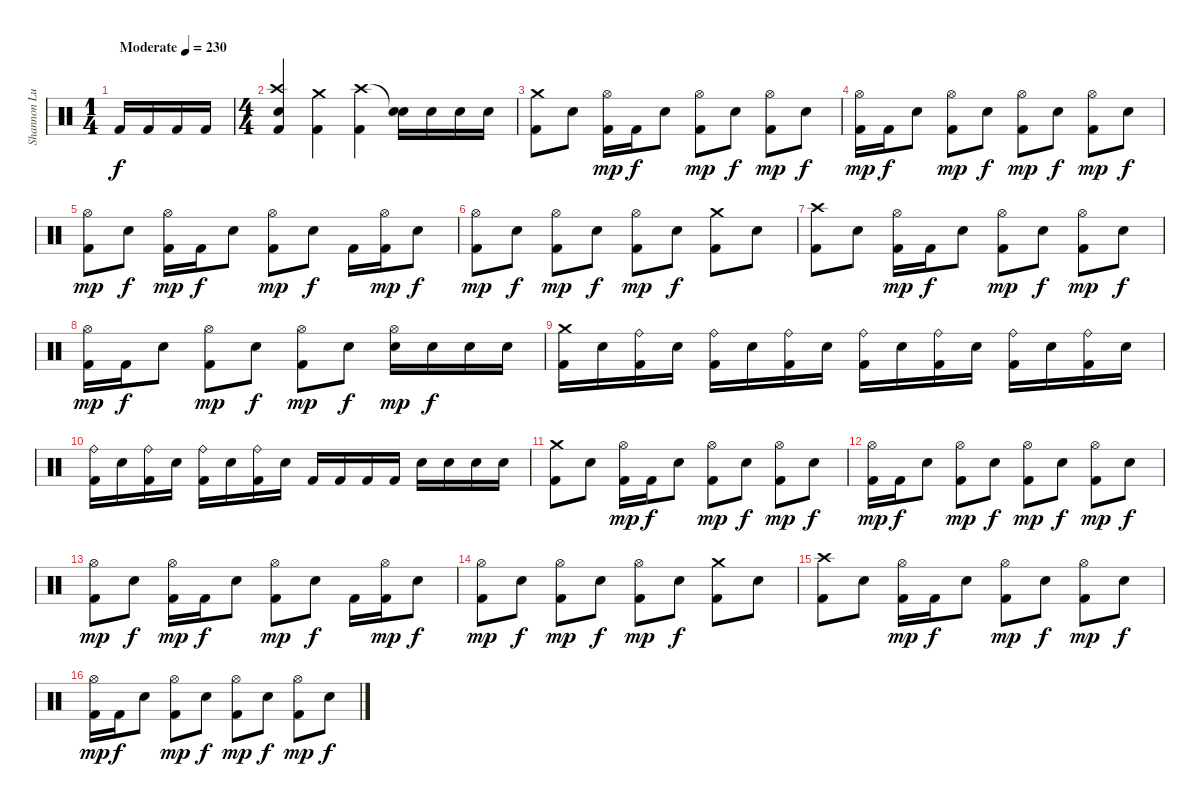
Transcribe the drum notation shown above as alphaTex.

\track ("Shannon Lucas" "Shannon Lu") {instrument percussion}
\staff {score}
\articulation defaults
\ts (1 4)
\tempo (230 "Moderate")
\clef neutral
\ks c "Kick (hit) 2".16{dy f} "Kick (hit) 2".16 "Kick (hit) 2".16 "Kick (hit) 2".16
|
\ts (4 4)
("Crash high (hit)" "Electric Snare (hit)" "Kick (hit) 2").4 ("Crash medium (hit)" "Kick (hit) 2").4 ("Crash high (hit)" "Kick (hit) 2").4 ("Snare (hit)"{t} "Electric Snare (hit)").16 "Electric Snare (hit)".16 "Electric Snare (hit)".16 "Electric Snare (hit)".16 |
("Crash medium (hit)" "Kick (hit) 2").8 "Electric Snare (hit)".8 ("Hi-Hat (open)" "Kick (hit) 2").16{dy mp} "Kick (hit) 2".16{dy f} "Electric Snare (hit)".8 ("Hi-Hat (open)" "Kick (hit) 2").8{dy mp} "Electric Snare (hit)".8{dy f} ("Hi-Hat (open)" "Kick (hit) 2").8{dy mp} "Electric Snare (hit)".8{dy f} |
("Hi-Hat (open)" "Kick (hit) 2").16{dy mp} "Kick (hit) 2".16{dy f} "Electric Snare (hit)".8 ("Hi-Hat (open)" "Kick (hit) 2").8{dy mp} "Electric Snare (hit)".8{dy f} ("Hi-Hat (open)" "Kick (hit) 2").8{dy mp} "Electric Snare (hit)".8{dy f} ("Hi-Hat (open)" "Kick (hit) 2").8{dy mp} "Electric Snare (hit)".8{dy f} |
("Hi-Hat (open)" "Kick (hit) 2").8{dy mp} "Electric Snare (hit)".8{dy f} ("Hi-Hat (open)" "Kick (hit) 2").16{dy mp} "Kick (hit) 2".16{dy f} "Electric Snare (hit)".8 ("Hi-Hat (open)" "Kick (hit) 2").8{dy mp} "Electric Snare (hit)".8{dy f} "Kick (hit) 2".16 ("Hi-Hat (open)" "Kick (hit) 2").16{dy mp} "Electric Snare (hit)".8{dy f} |
("Hi-Hat (open)" "Kick (hit) 2").8{dy mp} "Electric Snare (hit)".8{dy f} ("Hi-Hat (open)" "Kick (hit) 2").8{dy mp} "Electric Snare (hit)".8{dy f} ("Hi-Hat (open)" "Kick (hit) 2").8{dy mp} "Electric Snare (hit)".8{dy f} ("Crash medium (hit)" "Kick (hit) 2").8 "Electric Snare (hit)".8 |
("Crash high (hit)" "Kick (hit) 2").8 "Electric Snare (hit)".8 ("Hi-Hat (open)" "Kick (hit) 2").16{dy mp} "Kick (hit) 2".16{dy f} "Electric Snare (hit)".8 ("Hi-Hat (open)" "Kick (hit) 2").8{dy mp} "Electric Snare (hit)".8{dy f} ("Hi-Hat (open)" "Kick (hit) 2").8{dy mp} "Electric Snare (hit)".8{dy f} |
("Hi-Hat (open)" "Kick (hit) 2").16{dy mp} "Kick (hit) 2".16{dy f} "Electric Snare (hit)".8 ("Hi-Hat (open)" "Kick (hit) 2").8{dy mp} "Electric Snare (hit)".8{dy f} ("Hi-Hat (open)" "Kick (hit) 2").8{dy mp} "Electric Snare (hit)".8{dy f} ("Hi-Hat (open)" "Electric Snare (hit)").16{dy mp} "Electric Snare (hit)".16{dy f} "Electric Snare (hit)".16 "Electric Snare (hit)".16 |
("Crash medium (hit)" "Kick (hit) 2").16 "Electric Snare (hit)".16 ("Ride (bell)" "Kick (hit) 2").16 "Electric Snare (hit)".16 ("Ride (bell)" "Kick (hit) 2").16 "Electric Snare (hit)".16 ("Ride (bell)" "Kick (hit) 2").16 "Electric Snare (hit)".16 ("Ride (bell)" "Kick (hit) 2").16 "Electric Snare (hit)".16 ("Ride (bell)" "Kick (hit) 2").16 "Electric Snare (hit)".16 ("Ride (bell)" "Kick (hit) 2").16 "Electric Snare (hit)".16 ("Ride (bell)" "Kick (hit) 2").16 "Electric Snare (hit)".16 |
("Ride (bell)" "Kick (hit) 2").16 "Electric Snare (hit)".16 ("Ride (bell)" "Kick (hit) 2").16 "Electric Snare (hit)".16 ("Ride (bell)" "Kick (hit) 2").16 "Electric Snare (hit)".16 ("Ride (bell)" "Kick (hit) 2").16 "Electric Snare (hit)".16 "Kick (hit) 2".16 "Kick (hit) 2".16 "Kick (hit) 2".16 "Kick (hit) 2".16 "Electric Snare (hit)".16 "Electric Snare (hit)".16 "Electric Snare (hit)".16 "Electric Snare (hit)".16 |
("Crash medium (hit)" "Kick (hit) 2").8 "Electric Snare (hit)".8 ("Hi-Hat (open)" "Kick (hit) 2").16{dy mp} "Kick (hit) 2".16{dy f} "Electric Snare (hit)".8 ("Hi-Hat (open)" "Kick (hit) 2").8{dy mp} "Electric Snare (hit)".8{dy f} ("Hi-Hat (open)" "Kick (hit) 2").8{dy mp} "Electric Snare (hit)".8{dy f} |
("Hi-Hat (open)" "Kick (hit) 2").16{dy mp} "Kick (hit) 2".16{dy f} "Electric Snare (hit)".8 ("Hi-Hat (open)" "Kick (hit) 2").8{dy mp} "Electric Snare (hit)".8{dy f} ("Hi-Hat (open)" "Kick (hit) 2").8{dy mp} "Electric Snare (hit)".8{dy f} ("Hi-Hat (open)" "Kick (hit) 2").8{dy mp} "Electric Snare (hit)".8{dy f} |
("Hi-Hat (open)" "Kick (hit) 2").8{dy mp} "Electric Snare (hit)".8{dy f} ("Hi-Hat (open)" "Kick (hit) 2").16{dy mp} "Kick (hit) 2".16{dy f} "Electric Snare (hit)".8 ("Hi-Hat (open)" "Kick (hit) 2").8{dy mp} "Electric Snare (hit)".8{dy f} "Kick (hit) 2".16 ("Hi-Hat (open)" "Kick (hit) 2").16{dy mp} "Electric Snare (hit)".8{dy f} |
("Hi-Hat (open)" "Kick (hit) 2").8{dy mp} "Electric Snare (hit)".8{dy f} ("Hi-Hat (open)" "Kick (hit) 2").8{dy mp} "Electric Snare (hit)".8{dy f} ("Hi-Hat (open)" "Kick (hit) 2").8{dy mp} "Electric Snare (hit)".8{dy f} ("Crash medium (hit)" "Kick (hit) 2").8 "Electric Snare (hit)".8 |
("Crash high (hit)" "Kick (hit) 2").8 "Electric Snare (hit)".8 ("Hi-Hat (open)" "Kick (hit) 2").16{dy mp} "Kick (hit) 2".16{dy f} "Electric Snare (hit)".8 ("Hi-Hat (open)" "Kick (hit) 2").8{dy mp} "Electric Snare (hit)".8{dy f} ("Hi-Hat (open)" "Kick (hit) 2").8{dy mp} "Electric Snare (hit)".8{dy f} |
("Hi-Hat (open)" "Kick (hit) 2").16{dy mp} "Kick (hit) 2".16{dy f} "Electric Snare (hit)".8 ("Hi-Hat (open)" "Kick (hit) 2").8{dy mp} "Electric Snare (hit)".8{dy f} ("Hi-Hat (open)" "Kick (hit) 2").8{dy mp} "Electric Snare (hit)".8{dy f} ("Hi-Hat (open)" "Kick (hit) 2").8{dy mp} "Electric Snare (hit)".8{dy f}
